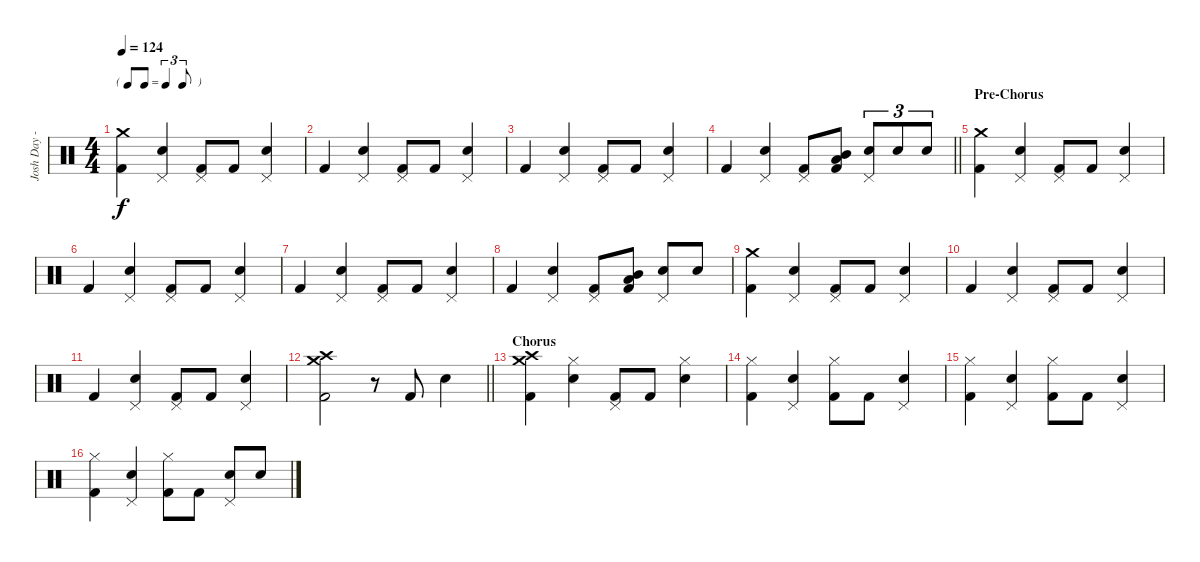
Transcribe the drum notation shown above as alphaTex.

\track ("Josh Day - Drums/Percussion" "Josh Day -") {instrument percussion}
\staff {score}
\articulation defaults
\ts (4 4)
\tf triplet8th
\tempo 124
\clef neutral
\ks c
("Crash medium (hit)" "Kick (hit) 2").4{dy f} ("Snare (hit) 2" "Pedal Hi-Hat (hit)").4 ("Pedal Hi-Hat (hit)" "Kick (hit) 2").8 "Kick (hit) 2".8 ("Snare (hit) 2" "Pedal Hi-Hat (hit)").4 |
"Kick (hit) 2".4 ("Snare (hit) 2" "Pedal Hi-Hat (hit)").4 ("Pedal Hi-Hat (hit)" "Kick (hit) 2").8 "Kick (hit) 2".8 ("Snare (hit) 2" "Pedal Hi-Hat (hit)").4 |
"Kick (hit) 2".4 ("Snare (hit) 2" "Pedal Hi-Hat (hit)").4 ("Pedal Hi-Hat (hit)" "Kick (hit) 2").8 "Kick (hit) 2".8 ("Snare (hit) 2" "Pedal Hi-Hat (hit)").4 |
\barLineRight lightlight "Kick (hit) 2".4
("Snare (hit) 2" "Pedal Hi-Hat (hit)").4 ("Pedal Hi-Hat (hit)" "Kick (hit) 2").8 ("Mid Tom (hit)" "Low Tom (hit)" "Kick (hit) 2").8 ("Snare (hit) 2" "Pedal Hi-Hat (hit)").8{tu (3 2)} "Snare (hit) 2".8{tu (3 2)} "Snare (hit) 2".8{tu (3 2)} |
\section ("" "Pre-Chorus")
("Crash medium (hit)" "Kick (hit) 2").4 ("Snare (hit) 2" "Pedal Hi-Hat (hit)").4 ("Pedal Hi-Hat (hit)" "Kick (hit) 2").8 "Kick (hit) 2".8 ("Snare (hit) 2" "Pedal Hi-Hat (hit)").4 |
"Kick (hit) 2".4 ("Snare (hit) 2" "Pedal Hi-Hat (hit)").4 ("Pedal Hi-Hat (hit)" "Kick (hit) 2").8 "Kick (hit) 2".8 ("Snare (hit) 2" "Pedal Hi-Hat (hit)").4 |
"Kick (hit) 2".4 ("Snare (hit) 2" "Pedal Hi-Hat (hit)").4 ("Pedal Hi-Hat (hit)" "Kick (hit) 2").8 "Kick (hit) 2".8 ("Snare (hit) 2" "Pedal Hi-Hat (hit)").4 |
"Kick (hit) 2".4 ("Snare (hit) 2" "Pedal Hi-Hat (hit)").4 ("Pedal Hi-Hat (hit)" "Kick (hit) 2").8 ("Mid Tom (hit)" "Low Tom (hit)" "Kick (hit) 2").8 ("Snare (hit) 2" "Pedal Hi-Hat (hit)").8 "Snare (hit) 2".8 |
("Crash medium (hit)" "Kick (hit) 2").4 ("Snare (hit) 2" "Pedal Hi-Hat (hit)").4 ("Pedal Hi-Hat (hit)" "Kick (hit) 2").8 "Kick (hit) 2".8 ("Snare (hit) 2" "Pedal Hi-Hat (hit)").4 |
"Kick (hit) 2".4 ("Snare (hit) 2" "Pedal Hi-Hat (hit)").4 ("Pedal Hi-Hat (hit)" "Kick (hit) 2").8 "Kick (hit) 2".8 ("Snare (hit) 2" "Pedal Hi-Hat (hit)").4 |
"Kick (hit) 2".4 ("Snare (hit) 2" "Pedal Hi-Hat (hit)").4 ("Pedal Hi-Hat (hit)" "Kick (hit) 2").8 "Kick (hit) 2".8 ("Snare (hit) 2" "Pedal Hi-Hat (hit)").4 |
\barLineRight lightlight
("Crash medium (hit)" "Crash high (hit)" "Kick (hit) 2").2 r.8 "Kick (hit) 2".8 "Snare (hit) 2".4 |
\section ("" "Chorus")
("Crash medium (hit)" "Crash high (hit)" "Kick (hit) 2").4 ("Snare (hit) 2" "Hi-Hat (closed)").4 ("Pedal Hi-Hat (hit)" "Kick (hit) 2").8 "Kick (hit) 2".8 ("Snare (hit) 2" "Hi-Hat (closed)").4 |
("Hi-Hat (closed)" "Kick (hit) 2").4 ("Snare (hit) 2" "Pedal Hi-Hat (hit)").4 ("Hi-Hat (closed)" "Kick (hit) 2").8 "Kick (hit) 2".8 ("Snare (hit) 2" "Pedal Hi-Hat (hit)").4 |
("Hi-Hat (closed)" "Kick (hit) 2").4 ("Snare (hit) 2" "Pedal Hi-Hat (hit)").4 ("Hi-Hat (closed)" "Kick (hit) 2").8 "Kick (hit) 2".8 ("Snare (hit) 2" "Pedal Hi-Hat (hit)").4 |
("Hi-Hat (closed)" "Kick (hit) 2").4 ("Snare (hit) 2" "Pedal Hi-Hat (hit)").4 ("Hi-Hat (closed)" "Kick (hit) 2").8 "Kick (hit) 2".8 ("Snare (hit) 2" "Pedal Hi-Hat (hit)").8 "Snare (hit) 2".8
